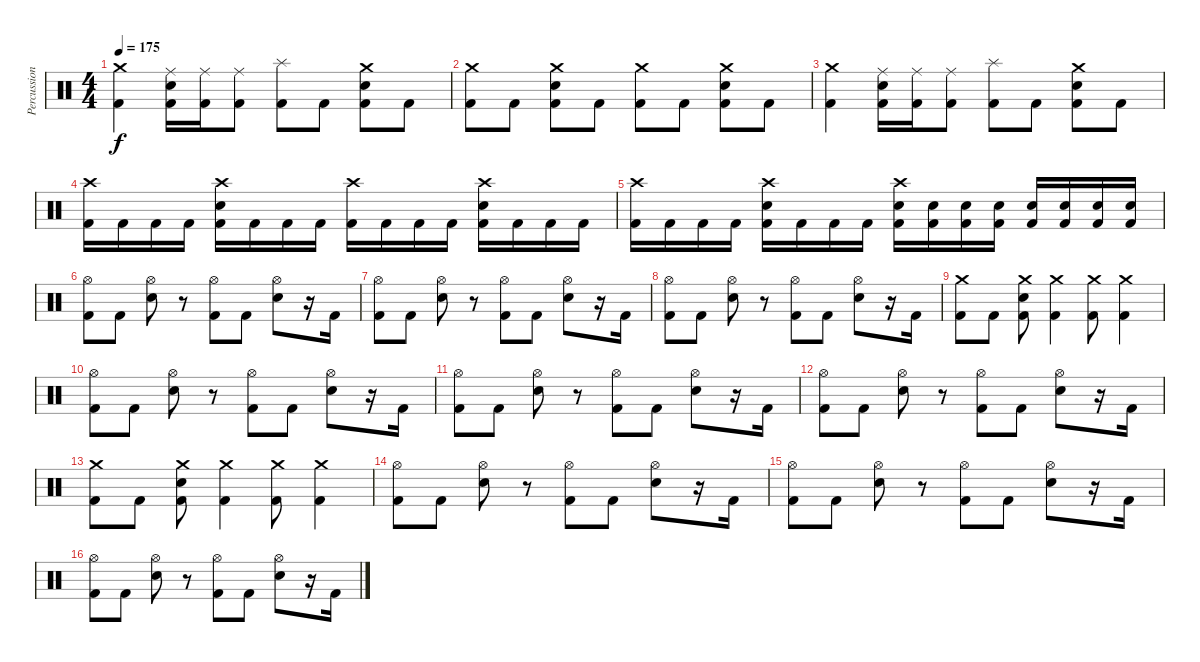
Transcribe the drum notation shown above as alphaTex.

\track ("Percussion" "Percussion") {instrument percussion}
\staff {score}
\articulation defaults
\ts (4 4)
\tempo 175
\clef neutral
\ks c
("Crash medium (hit)" "Kick (hit) 2").4{dy f} ("Ride (middle)" "Electric Snare (hit)" "Kick (hit) 2").16 ("Ride (middle)" "Kick (hit) 2").16 ("Ride (middle)" "Kick (hit) 2").8 ("Splash (hit)" "Kick (hit) 2").8 "Kick (hit) 2".8 ("Crash medium (hit)" "Electric Snare (hit)" "Kick (hit) 2").8 "Kick (hit) 2".8 |
("Crash medium (hit)" "Kick (hit) 2").8 "Kick (hit) 2".8 ("Crash medium (hit)" "Electric Snare (hit)" "Kick (hit) 2").8 "Kick (hit) 2".8 ("Crash medium (hit)" "Kick (hit) 2").8 "Kick (hit) 2".8 ("Crash medium (hit)" "Electric Snare (hit)" "Kick (hit) 2").8 "Kick (hit) 2".8 |
("Crash medium (hit)" "Kick (hit) 2").4 ("Ride (middle)" "Electric Snare (hit)" "Kick (hit) 2").16 ("Ride (middle)" "Kick (hit) 2").16 ("Ride (middle)" "Kick (hit) 2").8 ("Splash (hit)" "Kick (hit) 2").8 "Kick (hit) 2".8 ("Crash medium (hit)" "Electric Snare (hit)" "Kick (hit) 2").8 "Kick (hit) 2".8 |
("Crash high (hit)" "Kick (hit) 2").16 "Kick (hit) 2".16 "Kick (hit) 2".16 "Kick (hit) 2".16 ("Crash high (hit)" "Electric Snare (hit)" "Kick (hit) 2").16 "Kick (hit) 2".16 "Kick (hit) 2".16 "Kick (hit) 2".16 ("Crash high (hit)" "Kick (hit) 2").16 "Kick (hit) 2".16 "Kick (hit) 2".16 "Kick (hit) 2".16 ("Crash high (hit)" "Electric Snare (hit)" "Kick (hit) 2").16 "Kick (hit) 2".16 "Kick (hit) 2".16 "Kick (hit) 2".16 |
("Crash high (hit)" "Kick (hit) 2").16 "Kick (hit) 2".16 "Kick (hit) 2".16 "Kick (hit) 2".16 ("Crash high (hit)" "Electric Snare (hit)" "Kick (hit) 2").16 "Kick (hit) 2".16 "Kick (hit) 2".16 "Kick (hit) 2".16 ("Crash high (hit)" "Electric Snare (hit)" "Kick (hit) 2").16 ("Electric Snare (hit)" "Kick (hit) 2").16 ("Electric Snare (hit)" "Kick (hit) 2").16 ("Electric Snare (hit)" "Kick (hit) 2").16 ("Electric Snare (hit)" "Kick (hit) 2").16 ("Electric Snare (hit)" "Kick (hit) 2").16 ("Electric Snare (hit)" "Kick (hit) 2").16 ("Electric Snare (hit)" "Kick (hit) 2").16 |
("Hi-Hat (open)" "Kick (hit) 2").8 "Kick (hit) 2".8 ("Hi-Hat (open)" "Electric Snare (hit)").8 r.8 ("Hi-Hat (open)" "Kick (hit) 2").8 "Kick (hit) 2".8 ("Hi-Hat (open)" "Electric Snare (hit)").8 r.16 "Kick (hit) 2".16 |
("Hi-Hat (open)" "Kick (hit) 2").8 "Kick (hit) 2".8 ("Hi-Hat (open)" "Electric Snare (hit)").8 r.8 ("Hi-Hat (open)" "Kick (hit) 2").8 "Kick (hit) 2".8 ("Hi-Hat (open)" "Electric Snare (hit)").8 r.16 "Kick (hit) 2".16 |
("Hi-Hat (open)" "Kick (hit) 2").8 "Kick (hit) 2".8 ("Hi-Hat (open)" "Electric Snare (hit)").8 r.8 ("Hi-Hat (open)" "Kick (hit) 2").8 "Kick (hit) 2".8 ("Hi-Hat (open)" "Electric Snare (hit)").8 r.16 "Kick (hit) 2".16 |
("Crash medium (hit)" "Kick (hit) 2").8 "Kick (hit) 2".8 ("Crash medium (hit)" "Electric Snare (hit)" "Kick (hit) 2").8 ("Crash medium (hit)" "Kick (hit) 2").4 ("Crash medium (hit)" "Kick (hit) 2").8 ("Crash medium (hit)" "Kick (hit) 2").4 |
("Hi-Hat (open)" "Kick (hit) 2").8 "Kick (hit) 2".8 ("Hi-Hat (open)" "Electric Snare (hit)").8 r.8 ("Hi-Hat (open)" "Kick (hit) 2").8 "Kick (hit) 2".8 ("Hi-Hat (open)" "Electric Snare (hit)").8 r.16 "Kick (hit) 2".16 |
("Hi-Hat (open)" "Kick (hit) 2").8 "Kick (hit) 2".8 ("Hi-Hat (open)" "Electric Snare (hit)").8 r.8 ("Hi-Hat (open)" "Kick (hit) 2").8 "Kick (hit) 2".8 ("Hi-Hat (open)" "Electric Snare (hit)").8 r.16 "Kick (hit) 2".16 |
("Hi-Hat (open)" "Kick (hit) 2").8 "Kick (hit) 2".8 ("Hi-Hat (open)" "Electric Snare (hit)").8 r.8 ("Hi-Hat (open)" "Kick (hit) 2").8 "Kick (hit) 2".8 ("Hi-Hat (open)" "Electric Snare (hit)").8 r.16 "Kick (hit) 2".16 |
("Crash medium (hit)" "Kick (hit) 2").8 "Kick (hit) 2".8 ("Crash medium (hit)" "Electric Snare (hit)" "Kick (hit) 2").8 ("Crash medium (hit)" "Kick (hit) 2").4 ("Crash medium (hit)" "Kick (hit) 2").8 ("Crash medium (hit)" "Kick (hit) 2").4 |
("Hi-Hat (open)" "Kick (hit) 2").8 "Kick (hit) 2".8 ("Hi-Hat (open)" "Electric Snare (hit)").8 r.8 ("Hi-Hat (open)" "Kick (hit) 2").8 "Kick (hit) 2".8 ("Hi-Hat (open)" "Electric Snare (hit)").8 r.16 "Kick (hit) 2".16 |
("Hi-Hat (open)" "Kick (hit) 2").8 "Kick (hit) 2".8 ("Hi-Hat (open)" "Electric Snare (hit)").8 r.8 ("Hi-Hat (open)" "Kick (hit) 2").8 "Kick (hit) 2".8 ("Hi-Hat (open)" "Electric Snare (hit)").8 r.16 "Kick (hit) 2".16 |
("Hi-Hat (open)" "Kick (hit) 2").8 "Kick (hit) 2".8 ("Hi-Hat (open)" "Electric Snare (hit)").8 r.8 ("Hi-Hat (open)" "Kick (hit) 2").8 "Kick (hit) 2".8 ("Hi-Hat (open)" "Electric Snare (hit)").8 r.16 "Kick (hit) 2".16
